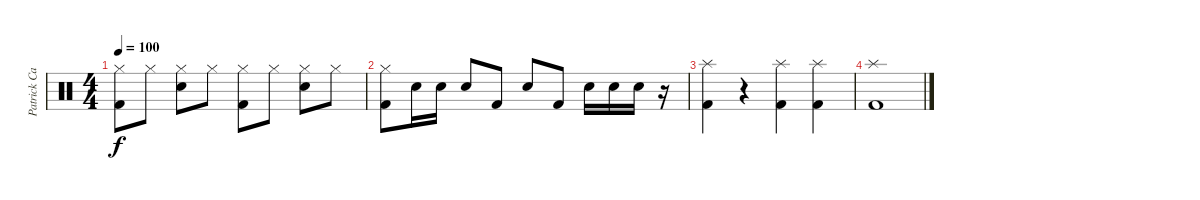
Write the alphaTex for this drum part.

\track ("Patrick Carney" "Patrick Ca") {instrument percussion}
\staff {score}
\articulation defaults
\ts (4 4)
\tempo 100
\clef neutral
\ks c
("Hi-Hat (closed)" "Kick (hit) 2").8{dy f} "Hi-Hat (closed)".8 ("Hi-Hat (closed)" "Snare (hit) 2").8 "Hi-Hat (closed)".8 ("Hi-Hat (closed)" "Kick (hit) 2").8 "Hi-Hat (closed)".8 ("Hi-Hat (closed)" "Snare (hit) 2").8 "Hi-Hat (closed)".8 |
("Hi-Hat (closed)" "Kick (hit) 2").8 "Snare (hit) 2".16 "Snare (hit) 2".16 "Snare (hit) 2".8 "Kick (hit) 2".8 "Snare (hit) 2".8 "Kick (hit) 2".8 "Snare (hit) 2".16 "Snare (hit) 2".16 "Snare (hit) 2".16 r.16 |
("Splash (hit)" "Kick (hit) 2").4 r.4 ("Splash (hit)" "Kick (hit) 2").4 ("Splash (hit)" "Kick (hit) 2").4 |
("Splash (hit)" "Kick (hit) 2").1
